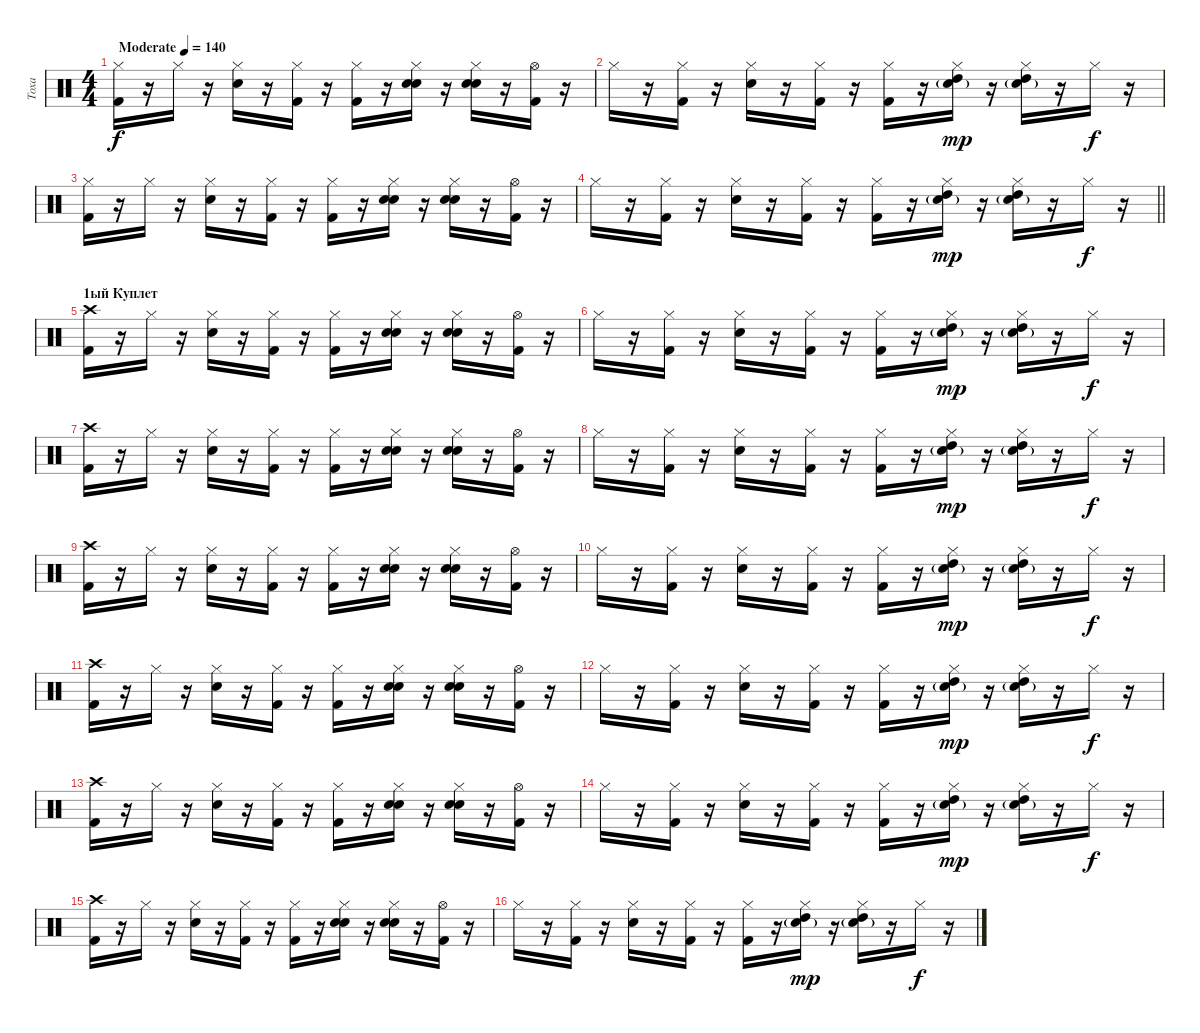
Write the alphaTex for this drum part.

\track ("Тоха" "Тоха") {instrument percussion}
\staff {score}
\articulation defaults
\ts (4 4)
\tempo (140 "Moderate")
\clef neutral
\ks c
("Kick (hit) 2" "Hi-Hat (closed)").16{dy f} r.16 "Hi-Hat (closed)".16 r.16 ("Snare (hit) 2" "Hi-Hat (closed)").16 r.16 ("Kick (hit) 2" "Hi-Hat (closed)").16 r.16 ("Kick (hit) 2" "Hi-Hat (closed)").16 r.16 ("Snare (hit) 2" "Hi-Hat (closed)" "Hand Clap (hit)").16 r.16 ("Snare (hit) 2" "Hi-Hat (closed)" "Hand Clap (hit)").16 r.16 ("Kick (hit) 2" "Hi-Hat (open)").16 r.16 |
"Hi-Hat (closed)".16 r.16 ("Kick (hit) 2" "Hi-Hat (closed)").16 r.16 ("Snare (hit) 2" "Hi-Hat (closed)").16 r.16 ("Kick (hit) 2" "Hi-Hat (closed)").16 r.16 ("Kick (hit) 2" "Hi-Hat (closed)").16 r.16 ("High Tom (hit)" "Hi-Hat (closed)" "Snare (hit) 2"{g}).16{dy mp} r.16 ("High Tom (hit)" "Hi-Hat (closed)" "Snare (hit) 2"{g}).16 r.16 "Hi-Hat (closed)".16{dy f} r.16 |
("Kick (hit) 2" "Hi-Hat (closed)").16 r.16 "Hi-Hat (closed)".16 r.16 ("Snare (hit) 2" "Hi-Hat (closed)").16 r.16 ("Kick (hit) 2" "Hi-Hat (closed)").16 r.16 ("Kick (hit) 2" "Hi-Hat (closed)").16 r.16 ("Snare (hit) 2" "Hi-Hat (closed)" "Hand Clap (hit)").16 r.16 ("Snare (hit) 2" "Hi-Hat (closed)" "Hand Clap (hit)").16 r.16 ("Kick (hit) 2" "Hi-Hat (open)").16 r.16 |
\barLineRight lightlight "Hi-Hat (closed)".16
r.16 ("Kick (hit) 2" "Hi-Hat (closed)").16 r.16 ("Snare (hit) 2" "Hi-Hat (closed)").16 r.16 ("Kick (hit) 2" "Hi-Hat (closed)").16 r.16 ("Kick (hit) 2" "Hi-Hat (closed)").16 r.16 ("High Tom (hit)" "Hi-Hat (closed)" "Snare (hit) 2"{g}).16{dy mp} r.16 ("High Tom (hit)" "Hi-Hat (closed)" "Snare (hit) 2"{g}).16 r.16 "Hi-Hat (closed)".16{dy f} r.16 |
\section ("" "1ый Куплет")
("Kick (hit) 2" "Crash high (hit)").16 r.16 "Hi-Hat (closed)".16 r.16 ("Snare (hit) 2" "Hi-Hat (closed)").16 r.16 ("Kick (hit) 2" "Hi-Hat (closed)").16 r.16 ("Kick (hit) 2" "Hi-Hat (closed)").16 r.16 ("Snare (hit) 2" "Hi-Hat (closed)" "Hand Clap (hit)").16 r.16 ("Snare (hit) 2" "Hi-Hat (closed)" "Hand Clap (hit)").16 r.16 ("Kick (hit) 2" "Hi-Hat (open)").16 r.16 |
"Hi-Hat (closed)".16 r.16 ("Kick (hit) 2" "Hi-Hat (closed)").16 r.16 ("Snare (hit) 2" "Hi-Hat (closed)").16 r.16 ("Kick (hit) 2" "Hi-Hat (closed)").16 r.16 ("Kick (hit) 2" "Hi-Hat (closed)").16 r.16 ("High Tom (hit)" "Hi-Hat (closed)" "Snare (hit) 2"{g}).16{dy mp} r.16 ("High Tom (hit)" "Hi-Hat (closed)" "Snare (hit) 2"{g}).16 r.16 "Hi-Hat (closed)".16{dy f} r.16 |
("Kick (hit) 2" "Crash high (hit)").16 r.16 "Hi-Hat (closed)".16 r.16 ("Snare (hit) 2" "Hi-Hat (closed)").16 r.16 ("Kick (hit) 2" "Hi-Hat (closed)").16 r.16 ("Kick (hit) 2" "Hi-Hat (closed)").16 r.16 ("Snare (hit) 2" "Hi-Hat (closed)" "Hand Clap (hit)").16 r.16 ("Snare (hit) 2" "Hi-Hat (closed)" "Hand Clap (hit)").16 r.16 ("Kick (hit) 2" "Hi-Hat (open)").16 r.16 |
"Hi-Hat (closed)".16 r.16 ("Kick (hit) 2" "Hi-Hat (closed)").16 r.16 ("Snare (hit) 2" "Hi-Hat (closed)").16 r.16 ("Kick (hit) 2" "Hi-Hat (closed)").16 r.16 ("Kick (hit) 2" "Hi-Hat (closed)").16 r.16 ("High Tom (hit)" "Hi-Hat (closed)" "Snare (hit) 2"{g}).16{dy mp} r.16 ("High Tom (hit)" "Hi-Hat (closed)" "Snare (hit) 2"{g}).16 r.16 "Hi-Hat (closed)".16{dy f} r.16 |
("Kick (hit) 2" "Crash high (hit)").16 r.16 "Hi-Hat (closed)".16 r.16 ("Snare (hit) 2" "Hi-Hat (closed)").16 r.16 ("Kick (hit) 2" "Hi-Hat (closed)").16 r.16 ("Kick (hit) 2" "Hi-Hat (closed)").16 r.16 ("Snare (hit) 2" "Hi-Hat (closed)" "Hand Clap (hit)").16 r.16 ("Snare (hit) 2" "Hi-Hat (closed)" "Hand Clap (hit)").16 r.16 ("Kick (hit) 2" "Hi-Hat (open)").16 r.16 |
"Hi-Hat (closed)".16 r.16 ("Kick (hit) 2" "Hi-Hat (closed)").16 r.16 ("Snare (hit) 2" "Hi-Hat (closed)").16 r.16 ("Kick (hit) 2" "Hi-Hat (closed)").16 r.16 ("Kick (hit) 2" "Hi-Hat (closed)").16 r.16 ("High Tom (hit)" "Hi-Hat (closed)" "Snare (hit) 2"{g}).16{dy mp} r.16 ("High Tom (hit)" "Hi-Hat (closed)" "Snare (hit) 2"{g}).16 r.16 "Hi-Hat (closed)".16{dy f} r.16 |
("Kick (hit) 2" "Crash high (hit)").16 r.16 "Hi-Hat (closed)".16 r.16 ("Snare (hit) 2" "Hi-Hat (closed)").16 r.16 ("Kick (hit) 2" "Hi-Hat (closed)").16 r.16 ("Kick (hit) 2" "Hi-Hat (closed)").16 r.16 ("Snare (hit) 2" "Hi-Hat (closed)" "Hand Clap (hit)").16 r.16 ("Snare (hit) 2" "Hi-Hat (closed)" "Hand Clap (hit)").16 r.16 ("Kick (hit) 2" "Hi-Hat (open)").16 r.16 |
"Hi-Hat (closed)".16 r.16 ("Kick (hit) 2" "Hi-Hat (closed)").16 r.16 ("Snare (hit) 2" "Hi-Hat (closed)").16 r.16 ("Kick (hit) 2" "Hi-Hat (closed)").16 r.16 ("Kick (hit) 2" "Hi-Hat (closed)").16 r.16 ("High Tom (hit)" "Hi-Hat (closed)" "Snare (hit) 2"{g}).16{dy mp} r.16 ("High Tom (hit)" "Hi-Hat (closed)" "Snare (hit) 2"{g}).16 r.16 "Hi-Hat (closed)".16{dy f} r.16 |
("Kick (hit) 2" "Crash high (hit)").16 r.16 "Hi-Hat (closed)".16 r.16 ("Snare (hit) 2" "Hi-Hat (closed)").16 r.16 ("Kick (hit) 2" "Hi-Hat (closed)").16 r.16 ("Kick (hit) 2" "Hi-Hat (closed)").16 r.16 ("Snare (hit) 2" "Hi-Hat (closed)" "Hand Clap (hit)").16 r.16 ("Snare (hit) 2" "Hi-Hat (closed)" "Hand Clap (hit)").16 r.16 ("Kick (hit) 2" "Hi-Hat (open)").16 r.16 |
"Hi-Hat (closed)".16 r.16 ("Kick (hit) 2" "Hi-Hat (closed)").16 r.16 ("Snare (hit) 2" "Hi-Hat (closed)").16 r.16 ("Kick (hit) 2" "Hi-Hat (closed)").16 r.16 ("Kick (hit) 2" "Hi-Hat (closed)").16 r.16 ("High Tom (hit)" "Hi-Hat (closed)" "Snare (hit) 2"{g}).16{dy mp} r.16 ("High Tom (hit)" "Hi-Hat (closed)" "Snare (hit) 2"{g}).16 r.16 "Hi-Hat (closed)".16{dy f} r.16 |
("Kick (hit) 2" "Crash high (hit)").16 r.16 "Hi-Hat (closed)".16 r.16 ("Snare (hit) 2" "Hi-Hat (closed)").16 r.16 ("Kick (hit) 2" "Hi-Hat (closed)").16 r.16 ("Kick (hit) 2" "Hi-Hat (closed)").16 r.16 ("Snare (hit) 2" "Hi-Hat (closed)" "Hand Clap (hit)").16 r.16 ("Snare (hit) 2" "Hi-Hat (closed)" "Hand Clap (hit)").16 r.16 ("Kick (hit) 2" "Hi-Hat (open)").16 r.16 |
"Hi-Hat (closed)".16 r.16 ("Kick (hit) 2" "Hi-Hat (closed)").16 r.16 ("Snare (hit) 2" "Hi-Hat (closed)").16 r.16 ("Kick (hit) 2" "Hi-Hat (closed)").16 r.16 ("Kick (hit) 2" "Hi-Hat (closed)").16 r.16 ("High Tom (hit)" "Hi-Hat (closed)" "Snare (hit) 2"{g}).16{dy mp} r.16 ("High Tom (hit)" "Hi-Hat (closed)" "Snare (hit) 2"{g}).16 r.16 "Hi-Hat (closed)".16{dy f} r.16
